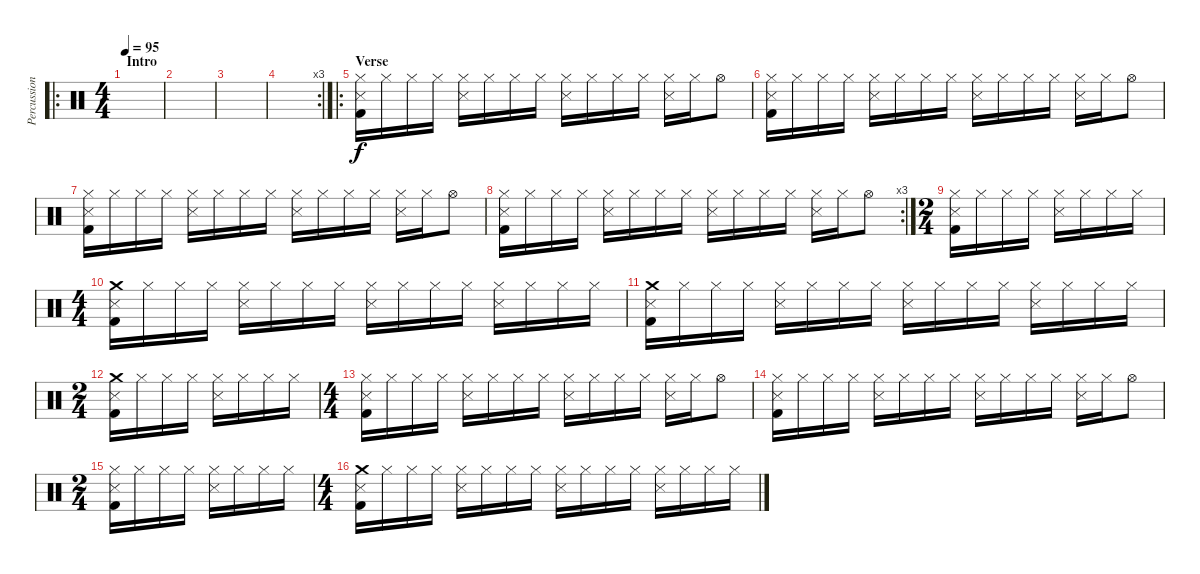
\track ("Percussion" "Percussion") {instrument percussion}
\staff {score}
\articulation defaults
\ro
\ts (4 4)
\section ("" "Intro")
\tempo 95
\clef neutral
\ks c
|
|
|
\rc 3
|
\ro
\section ("" "Verse")
("Hi-Hat (closed)" "Snare (side stick) 3" "Kick (hit) 2").16 "Hi-Hat (closed)".16 "Hi-Hat (closed)".16 "Hi-Hat (closed)".16 ("Hi-Hat (closed)" "Snare (side stick) 3").16 "Hi-Hat (closed)".16 "Hi-Hat (closed)".16 "Hi-Hat (closed)".16 ("Hi-Hat (closed)" "Snare (side stick) 3").16 "Hi-Hat (closed)".16 "Hi-Hat (closed)".16 "Hi-Hat (closed)".16 ("Hi-Hat (closed)" "Snare (side stick) 3").16 "Hi-Hat (closed)".16 "Hi-Hat (open)".8 |
("Hi-Hat (closed)" "Snare (side stick) 3" "Kick (hit) 2").16 "Hi-Hat (closed)".16 "Hi-Hat (closed)".16 "Hi-Hat (closed)".16 ("Hi-Hat (closed)" "Snare (side stick) 3").16 "Hi-Hat (closed)".16 "Hi-Hat (closed)".16 "Hi-Hat (closed)".16 ("Hi-Hat (closed)" "Snare (side stick) 3").16 "Hi-Hat (closed)".16 "Hi-Hat (closed)".16 "Hi-Hat (closed)".16 ("Hi-Hat (closed)" "Snare (side stick) 3").16 "Hi-Hat (closed)".16 "Hi-Hat (open)".8 |
("Hi-Hat (closed)" "Snare (side stick) 3" "Kick (hit) 2").16 "Hi-Hat (closed)".16 "Hi-Hat (closed)".16 "Hi-Hat (closed)".16 ("Hi-Hat (closed)" "Snare (side stick) 3").16 "Hi-Hat (closed)".16 "Hi-Hat (closed)".16 "Hi-Hat (closed)".16 ("Hi-Hat (closed)" "Snare (side stick) 3").16 "Hi-Hat (closed)".16 "Hi-Hat (closed)".16 "Hi-Hat (closed)".16 ("Hi-Hat (closed)" "Snare (side stick) 3").16 "Hi-Hat (closed)".16 "Hi-Hat (open)".8 |
\rc 3
("Hi-Hat (closed)" "Snare (side stick) 3" "Kick (hit) 2").16 "Hi-Hat (closed)".16 "Hi-Hat (closed)".16 "Hi-Hat (closed)".16 ("Hi-Hat (closed)" "Snare (side stick) 3").16 "Hi-Hat (closed)".16 "Hi-Hat (closed)".16 "Hi-Hat (closed)".16 ("Hi-Hat (closed)" "Snare (side stick) 3").16 "Hi-Hat (closed)".16 "Hi-Hat (closed)".16 "Hi-Hat (closed)".16 ("Hi-Hat (closed)" "Snare (side stick) 3").16 "Hi-Hat (closed)".16 "Hi-Hat (open)".8 |
\ts (2 4)
("Hi-Hat (closed)" "Snare (side stick) 3" "Kick (hit) 2").16 "Hi-Hat (closed)".16 "Hi-Hat (closed)".16 "Hi-Hat (closed)".16 ("Hi-Hat (closed)" "Snare (side stick) 3").16 "Hi-Hat (closed)".16 "Hi-Hat (closed)".16 "Hi-Hat (closed)".16 |
\ts (4 4)
("Crash medium (hit)" "Snare (side stick) 3" "Kick (hit) 2").16 "Hi-Hat (closed)".16 "Hi-Hat (closed)".16 "Hi-Hat (closed)".16 ("Hi-Hat (closed)" "Snare (side stick) 3").16 "Hi-Hat (closed)".16 "Hi-Hat (closed)".16 "Hi-Hat (closed)".16 ("Hi-Hat (closed)" "Snare (side stick) 3").16 "Hi-Hat (closed)".16 "Hi-Hat (closed)".16 "Hi-Hat (closed)".16 ("Hi-Hat (closed)" "Snare (side stick) 3").16 "Hi-Hat (closed)".16 "Hi-Hat (closed)".16 "Hi-Hat (closed)".16 |
("Crash medium (hit)" "Snare (side stick) 3" "Kick (hit) 2").16 "Hi-Hat (closed)".16 "Hi-Hat (closed)".16 "Hi-Hat (closed)".16 ("Hi-Hat (closed)" "Snare (side stick) 3").16 "Hi-Hat (closed)".16 "Hi-Hat (closed)".16 "Hi-Hat (closed)".16 ("Hi-Hat (closed)" "Snare (side stick) 3").16 "Hi-Hat (closed)".16 "Hi-Hat (closed)".16 "Hi-Hat (closed)".16 ("Hi-Hat (closed)" "Snare (side stick) 3").16 "Hi-Hat (closed)".16 "Hi-Hat (closed)".16 "Hi-Hat (closed)".16 |
\ts (2 4)
("Crash medium (hit)" "Snare (side stick) 3" "Kick (hit) 2").16 "Hi-Hat (closed)".16 "Hi-Hat (closed)".16 "Hi-Hat (closed)".16 ("Hi-Hat (closed)" "Snare (side stick) 3").16 "Hi-Hat (closed)".16 "Hi-Hat (closed)".16 "Hi-Hat (closed)".16 |
\ts (4 4)
("Hi-Hat (closed)" "Snare (side stick) 3" "Kick (hit) 2").16 "Hi-Hat (closed)".16 "Hi-Hat (closed)".16 "Hi-Hat (closed)".16 ("Hi-Hat (closed)" "Snare (side stick) 3").16 "Hi-Hat (closed)".16 "Hi-Hat (closed)".16 "Hi-Hat (closed)".16 ("Hi-Hat (closed)" "Snare (side stick) 3").16 "Hi-Hat (closed)".16 "Hi-Hat (closed)".16 "Hi-Hat (closed)".16 ("Hi-Hat (closed)" "Snare (side stick) 3").16 "Hi-Hat (closed)".16 "Hi-Hat (open)".8 |
("Hi-Hat (closed)" "Snare (side stick) 3" "Kick (hit) 2").16 "Hi-Hat (closed)".16 "Hi-Hat (closed)".16 "Hi-Hat (closed)".16 ("Hi-Hat (closed)" "Snare (side stick) 3").16 "Hi-Hat (closed)".16 "Hi-Hat (closed)".16 "Hi-Hat (closed)".16 ("Hi-Hat (closed)" "Snare (side stick) 3").16 "Hi-Hat (closed)".16 "Hi-Hat (closed)".16 "Hi-Hat (closed)".16 ("Hi-Hat (closed)" "Snare (side stick) 3").16 "Hi-Hat (closed)".16 "Hi-Hat (open)".8 |
\ts (2 4)
("Hi-Hat (closed)" "Snare (side stick) 3" "Kick (hit) 2").16 "Hi-Hat (closed)".16 "Hi-Hat (closed)".16 "Hi-Hat (closed)".16 ("Hi-Hat (closed)" "Snare (side stick) 3").16 "Hi-Hat (closed)".16 "Hi-Hat (closed)".16 "Hi-Hat (closed)".16 |
\ts (4 4)
("Crash medium (hit)" "Snare (side stick) 3" "Kick (hit) 2").16 "Hi-Hat (closed)".16 "Hi-Hat (closed)".16 "Hi-Hat (closed)".16 ("Hi-Hat (closed)" "Snare (side stick) 3").16 "Hi-Hat (closed)".16 "Hi-Hat (closed)".16 "Hi-Hat (closed)".16 ("Hi-Hat (closed)" "Snare (side stick) 3").16 "Hi-Hat (closed)".16 "Hi-Hat (closed)".16 "Hi-Hat (closed)".16 ("Hi-Hat (closed)" "Snare (side stick) 3").16 "Hi-Hat (closed)".16 "Hi-Hat (closed)".16 "Hi-Hat (closed)".16
